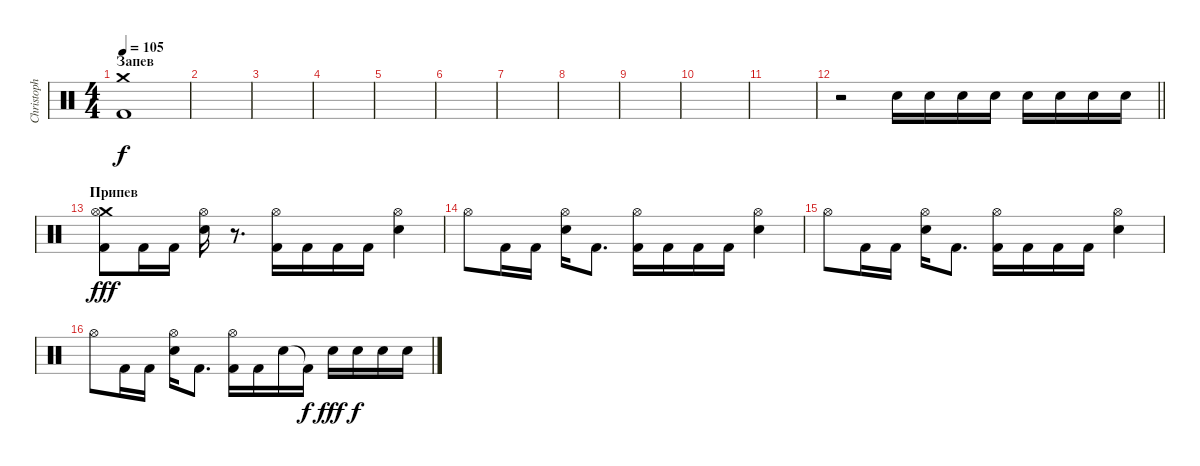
\track ("Christoph Schneider" "Christoph ") {instrument percussion}
\staff {score}
\articulation defaults
\ts (4 4)
\section ("" "Запев")
\tempo 105
\clef neutral
\ks c
("Crash medium (hit)" "Kick (hit) 2").1{dy f} |
|
|
|
|
|
|
|
|
|
|
\barLineRight lightlight
r.2 "Electric Snare (hit)".16 "Electric Snare (hit)".16 "Electric Snare (hit)".16 "Electric Snare (hit)".16 "Electric Snare (hit)".16 "Electric Snare (hit)".16 "Electric Snare (hit)".16 "Electric Snare (hit)".16 |
\section ("" "Припев")
("Crash medium (hit)" "Kick (hit) 2" "Hi-Hat (open)").8{dy fff} "Kick (hit) 2".16 "Kick (hit) 2".16 ("Hi-Hat (open)" "Electric Snare (hit)").16 r.8{d} ("Hi-Hat (open)" "Kick (hit) 2").16 "Kick (hit) 2".16 "Kick (hit) 2".16 "Kick (hit) 2".16 ("Hi-Hat (open)" "Electric Snare (hit)").4 |
"Hi-Hat (open)".8 "Kick (hit) 2".16 "Kick (hit) 2".16 ("Hi-Hat (open)" "Electric Snare (hit)").16 "Kick (hit) 2".8{d} ("Hi-Hat (open)" "Kick (hit) 2").16 "Kick (hit) 2".16 "Kick (hit) 2".16 "Kick (hit) 2".16 ("Hi-Hat (open)" "Electric Snare (hit)").4 |
"Hi-Hat (open)".8 "Kick (hit) 2".16 "Kick (hit) 2".16 ("Hi-Hat (open)" "Electric Snare (hit)").16 "Kick (hit) 2".8{d} ("Hi-Hat (open)" "Kick (hit) 2").16 "Kick (hit) 2".16 "Kick (hit) 2".16 "Kick (hit) 2".16 ("Hi-Hat (open)" "Electric Snare (hit)").4 |
"Hi-Hat (open)".8 "Kick (hit) 2".16 "Kick (hit) 2".16 ("Hi-Hat (open)" "Electric Snare (hit)").16 "Kick (hit) 2".8{d} ("Hi-Hat (open)" "Kick (hit) 2").16 "Kick (hit) 2".16 "Electric Snare (hit)".16 "Kick (hit) 2"{t}.16{dy f} "Electric Snare (hit)".16{dy fff} "Electric Snare (hit)".16{dy f} "Electric Snare (hit)".16 "Electric Snare (hit)".16
